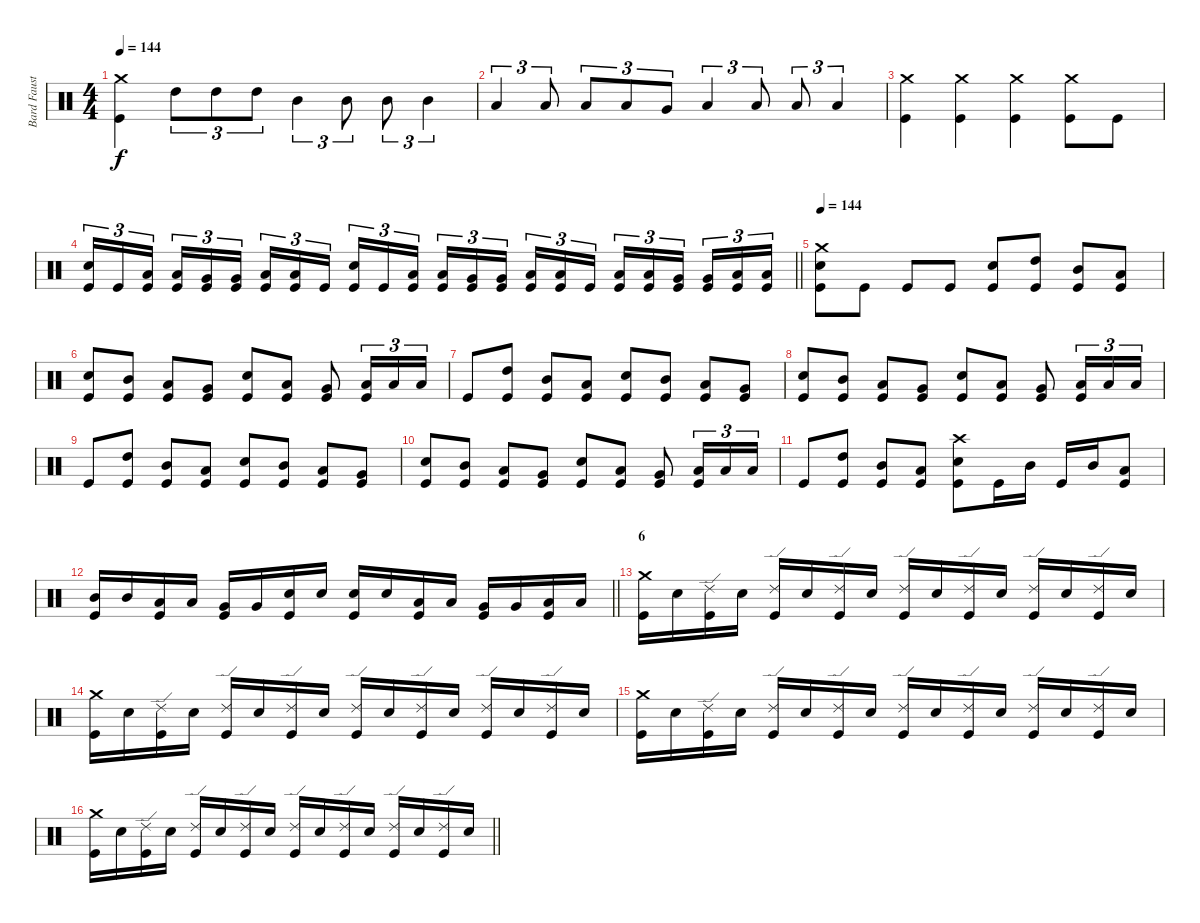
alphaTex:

\track ("Bard Faust" "Bard Faust") {instrument percussion}
\staff {score}
\articulation defaults
\ts (4 4)
\tempo 144
\clef neutral
\ks c
("Crash medium (hit)" "Kick (hit)").4{dy f} "High Tom (hit)".8{tu (3 2)} "High Tom (hit)".8{tu (3 2)} "High Tom (hit)".8{tu (3 2)} "Mid Tom (hit)".4{tu (3 2)} "Mid Tom (hit)".8{tu (3 2)} "Mid Tom (hit)".8{tu (3 2)} "Mid Tom (hit)".4{tu (3 2)} |
"Low Tom (hit)".4{tu (3 2)} "Low Tom (hit)".8{tu (3 2)} "Low Tom (hit)".8{tu (3 2)} "Low Tom (hit)".8{tu (3 2)} "Very Low Tom (hit)".8{tu (3 2)} "Low Floor Tom (hit)".4{tu (3 2)} "Low Floor Tom (hit)".8{tu (3 2)} "Low Floor Tom (hit)".8{tu (3 2)} "Low Floor Tom (hit)".4{tu (3 2)} |
("Crash medium (hit)" "Kick (hit)").4 ("Crash medium (hit)" "Kick (hit)").4 ("Crash medium (hit)" "Kick (hit)").4 ("Crash medium (hit)" "Kick (hit)").8 "Kick (hit)".8 |
\barLineRight lightlight
("Snare (hit) 2" "Kick (hit)").16{tu (3 2)} "Kick (hit)".16{tu (3 2)} ("Low Tom (hit)" "Kick (hit)").16{tu (3 2) beam splitsecondary} ("Low Tom (hit)" "Kick (hit)").16{tu (3 2)} ("Very Low Tom (hit)" "Kick (hit)").16{tu (3 2)} ("Very Low Tom (hit)" "Kick (hit)").16{tu (3 2)} ("Low Floor Tom (hit)" "Kick (hit)").16{tu (3 2)} ("Low Floor Tom (hit)" "Kick (hit)").16{tu (3 2)} "Kick (hit)".16{tu (3 2) beam splitsecondary} ("Snare (hit) 2" "Kick (hit)").16{tu (3 2)} "Kick (hit)".16{tu (3 2)} ("Low Tom (hit)" "Kick (hit)").16{tu (3 2)} ("Low Tom (hit)" "Kick (hit)").16{tu (3 2)} ("Very Low Tom (hit)" "Kick (hit)").16{tu (3 2)} ("Very Low Tom (hit)" "Kick (hit)").16{tu (3 2) beam splitsecondary} ("Low Floor Tom (hit)" "Kick (hit)").16{tu (3 2)} ("Low Floor Tom (hit)" "Kick (hit)").16{tu (3 2)} "Kick (hit)".16{tu (3 2)} ("Low Tom (hit)" "Kick (hit)").16{tu (3 2)} ("Low Tom (hit)" "Kick (hit)").16{tu (3 2)} ("Very Low Tom (hit)" "Kick (hit)").16{tu (3 2) beam splitsecondary} ("Very Low Tom (hit)" "Kick (hit)").16{tu (3 2)} ("Low Floor Tom (hit)" "Kick (hit)").16{tu (3 2)} ("Low Floor Tom (hit)" "Kick (hit)").16{tu (3 2)} |
\section ("" "")
\tempo 144
("Crash medium (hit)" "Snare (hit) 2" "Kick (hit)").8 "Kick (hit)".8 "Kick (hit)".8 "Kick (hit)".8 ("Snare (hit) 2" "Kick (hit)").8 ("High Tom (hit)" "Kick (hit)").8 ("Mid Tom (hit)" "Kick (hit)").8 ("Low Tom (hit)" "Kick (hit)").8 |
("Snare (hit) 2" "Kick (hit)").8 ("Mid Tom (hit)" "Kick (hit)").8 ("Low Tom (hit)" "Kick (hit)").8 ("Very Low Tom (hit)" "Kick (hit)").8 ("Snare (hit) 2" "Kick (hit)").8 ("Low Tom (hit)" "Kick (hit)").8 ("Very Low Tom (hit)" "Kick (hit)").8 ("Low Floor Tom (hit)" "Kick (hit)").16{tu (3 2)} "Low Floor Tom (hit)".16{tu (3 2)} "Low Floor Tom (hit)".16{tu (3 2)} |
"Kick (hit)".8 ("High Tom (hit)" "Kick (hit)").8 ("Mid Tom (hit)" "Kick (hit)").8 ("Low Tom (hit)" "Kick (hit)").8 ("Snare (hit) 2" "Kick (hit)").8 ("Mid Tom (hit)" "Kick (hit)").8 ("Low Tom (hit)" "Kick (hit)").8 ("Very Low Tom (hit)" "Kick (hit)").8 |
("Snare (hit) 2" "Kick (hit)").8 ("Mid Tom (hit)" "Kick (hit)").8 ("Low Tom (hit)" "Kick (hit)").8 ("Very Low Tom (hit)" "Kick (hit)").8 ("Snare (hit) 2" "Kick (hit)").8 ("Low Tom (hit)" "Kick (hit)").8 ("Very Low Tom (hit)" "Kick (hit)").8 ("Low Floor Tom (hit)" "Kick (hit)").16{tu (3 2)} "Low Floor Tom (hit)".16{tu (3 2)} "Low Floor Tom (hit)".16{tu (3 2)} |
"Kick (hit)".8 ("High Tom (hit)" "Kick (hit)").8 ("Mid Tom (hit)" "Kick (hit)").8 ("Low Tom (hit)" "Kick (hit)").8 ("Snare (hit) 2" "Kick (hit)").8 ("Mid Tom (hit)" "Kick (hit)").8 ("Low Tom (hit)" "Kick (hit)").8 ("Very Low Tom (hit)" "Kick (hit)").8 |
("Snare (hit) 2" "Kick (hit)").8 ("Mid Tom (hit)" "Kick (hit)").8 ("Low Tom (hit)" "Kick (hit)").8 ("Very Low Tom (hit)" "Kick (hit)").8 ("Snare (hit) 2" "Kick (hit)").8 ("Low Tom (hit)" "Kick (hit)").8 ("Very Low Tom (hit)" "Kick (hit)").8 ("Low Floor Tom (hit)" "Kick (hit)").16{tu (3 2)} "Low Floor Tom (hit)".16{tu (3 2)} "Low Floor Tom (hit)".16{tu (3 2)} |
"Kick (hit)".8 ("High Tom (hit)" "Kick (hit)").8 ("Mid Tom (hit)" "Kick (hit)").8 ("Low Tom (hit)" "Kick (hit)").8 ("Crash high (hit)" "Snare (hit) 2" "Kick (hit)").8 "Kick (hit)".16 "Mid Tom (hit)".16 "Kick (hit)".16 "Mid Tom (hit)".16 ("Low Tom (hit)" "Kick (hit)").8 |
\barLineRight lightlight
("Mid Tom (hit)" "Kick (hit)").16 "Mid Tom (hit)".16 ("Low Tom (hit)" "Kick (hit)").16 "Low Tom (hit)".16 ("Very Low Tom (hit)" "Kick (hit)").16 "Very Low Tom (hit)".16 ("Snare (hit) 2" "Kick (hit)").16 "Snare (hit) 2".16 ("Snare (hit) 2" "Kick (hit)").16 "Snare (hit) 2".16 ("Low Tom (hit)" "Kick (hit)").16 "Low Tom (hit)".16 ("Very Low Tom (hit)" "Kick (hit)").16 "Very Low Tom (hit)".16 ("Low Floor Tom (hit)" "Kick (hit)").16 "Low Floor Tom (hit)".16 |
\section ("" "6")
("Crash medium (hit)" "Kick (hit)").16 "Snare (hit) 2".16 ("Ride (edge) 2" "Kick (hit)").16 "Snare (hit) 2".16 ("Ride (edge) 2" "Kick (hit)").16 "Snare (hit) 2".16 ("Ride (edge) 2" "Kick (hit)").16 "Snare (hit) 2".16 ("Ride (edge) 2" "Kick (hit)").16 "Snare (hit) 2".16 ("Ride (edge) 2" "Kick (hit)").16 "Snare (hit) 2".16 ("Ride (edge) 2" "Kick (hit)").16 "Snare (hit) 2".16 ("Ride (edge) 2" "Kick (hit)").16 "Snare (hit) 2".16 |
("Crash medium (hit)" "Kick (hit)").16 "Snare (hit) 2".16 ("Ride (edge) 2" "Kick (hit)").16 "Snare (hit) 2".16 ("Ride (edge) 2" "Kick (hit)").16 "Snare (hit) 2".16 ("Ride (edge) 2" "Kick (hit)").16 "Snare (hit) 2".16 ("Ride (edge) 2" "Kick (hit)").16 "Snare (hit) 2".16 ("Ride (edge) 2" "Kick (hit)").16 "Snare (hit) 2".16 ("Ride (edge) 2" "Kick (hit)").16 "Snare (hit) 2".16 ("Ride (edge) 2" "Kick (hit)").16 "Snare (hit) 2".16 |
("Crash medium (hit)" "Kick (hit)").16 "Snare (hit) 2".16 ("Ride (edge) 2" "Kick (hit)").16 "Snare (hit) 2".16 ("Ride (edge) 2" "Kick (hit)").16 "Snare (hit) 2".16 ("Ride (edge) 2" "Kick (hit)").16 "Snare (hit) 2".16 ("Ride (edge) 2" "Kick (hit)").16 "Snare (hit) 2".16 ("Ride (edge) 2" "Kick (hit)").16 "Snare (hit) 2".16 ("Ride (edge) 2" "Kick (hit)").16 "Snare (hit) 2".16 ("Ride (edge) 2" "Kick (hit)").16 "Snare (hit) 2".16 |
\barLineRight lightlight
("Crash medium (hit)" "Kick (hit)").16 "Snare (hit) 2".16 ("Ride (edge) 2" "Kick (hit)").16 "Snare (hit) 2".16 ("Ride (edge) 2" "Kick (hit)").16 "Snare (hit) 2".16 ("Ride (edge) 2" "Kick (hit)").16 "Snare (hit) 2".16 ("Ride (edge) 2" "Kick (hit)").16 "Snare (hit) 2".16 ("Ride (edge) 2" "Kick (hit)").16 "Snare (hit) 2".16 ("Ride (edge) 2" "Kick (hit)").16 "Snare (hit) 2".16 ("Ride (edge) 2" "Kick (hit)").16 "Snare (hit) 2".16
